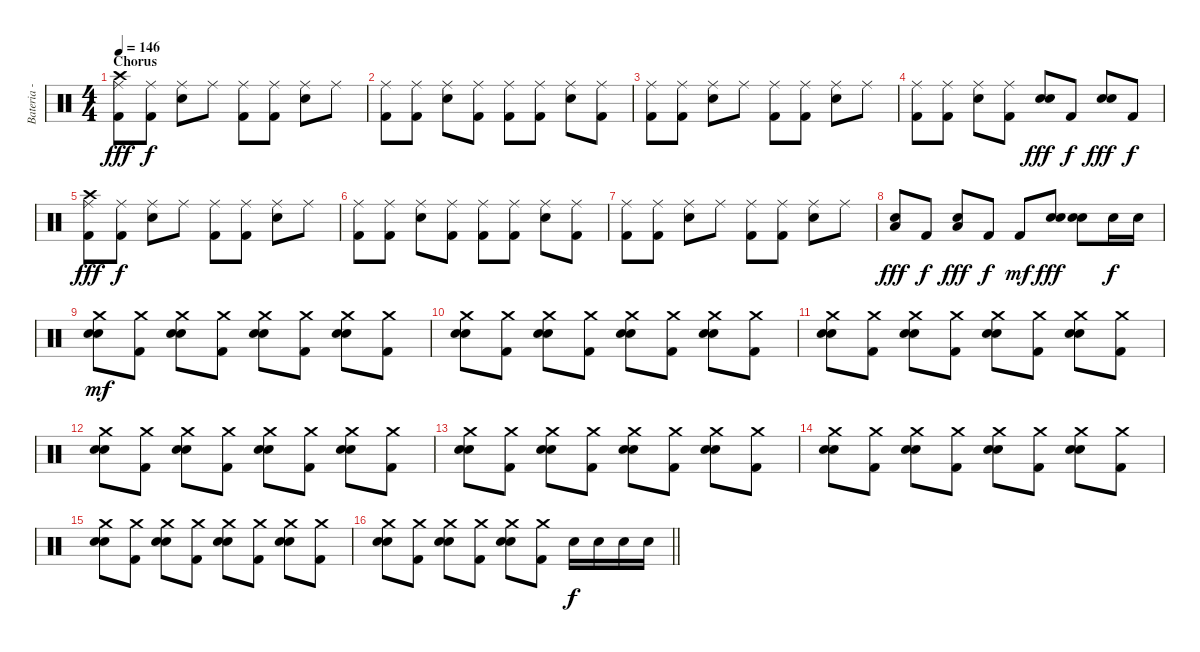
\track ("Bateria - Larzon" "Bateria - ") {instrument percussion}
\staff {score}
\articulation defaults
\ts (4 4)
\section ("" "Chorus")
\tempo 146
\clef neutral
\ks c
("Kick (hit) 2" "Ride (middle)" "Crash high (hit)").8{dy fff} ("Kick (hit) 2" "Ride (middle)").8{dy f} ("Electric Snare (hit)" "Ride (middle)").8 "Ride (middle)".8 ("Kick (hit) 2" "Ride (middle)").8 ("Kick (hit) 2" "Ride (middle)").8 ("Electric Snare (hit)" "Ride (middle)").8 "Ride (middle)".8 |
("Kick (hit) 2" "Ride (middle)").8 ("Kick (hit) 2" "Ride (middle)").8 ("Electric Snare (hit)" "Ride (middle)").8 ("Kick (hit) 2" "Ride (middle)").8 ("Kick (hit) 2" "Ride (middle)").8 ("Kick (hit) 2" "Ride (middle)").8 ("Electric Snare (hit)" "Ride (middle)").8 ("Kick (hit) 2" "Ride (middle)").8 |
("Kick (hit) 2" "Ride (middle)").8 ("Kick (hit) 2" "Ride (middle)").8 ("Electric Snare (hit)" "Ride (middle)").8 "Ride (middle)".8 ("Kick (hit) 2" "Ride (middle)").8 ("Kick (hit) 2" "Ride (middle)").8 ("Electric Snare (hit)" "Ride (middle)").8 "Ride (middle)".8 |
("Kick (hit) 2" "Ride (middle)").8 ("Kick (hit) 2" "Ride (middle)").8 ("Electric Snare (hit)" "Ride (middle)").8 ("Kick (hit) 2" "Ride (middle)").8 ("Electric Snare (hit)" "Electric Snare (hit)").8{dy fff} "Kick (hit) 2".8{dy f} ("Electric Snare (hit)" "Electric Snare (hit)").8{dy fff} "Kick (hit) 2".8{dy f} |
("Kick (hit) 2" "Ride (middle)" "Crash high (hit)").8{dy fff} ("Kick (hit) 2" "Ride (middle)").8{dy f} ("Electric Snare (hit)" "Ride (middle)").8 "Ride (middle)".8 ("Kick (hit) 2" "Ride (middle)").8 ("Kick (hit) 2" "Ride (middle)").8 ("Electric Snare (hit)" "Ride (middle)").8 "Ride (middle)".8 |
("Kick (hit) 2" "Ride (middle)").8 ("Kick (hit) 2" "Ride (middle)").8 ("Electric Snare (hit)" "Ride (middle)").8 ("Kick (hit) 2" "Ride (middle)").8 ("Kick (hit) 2" "Ride (middle)").8 ("Kick (hit) 2" "Ride (middle)").8 ("Electric Snare (hit)" "Ride (middle)").8 ("Kick (hit) 2" "Ride (middle)").8 |
("Kick (hit) 2" "Ride (middle)").8 ("Kick (hit) 2" "Ride (middle)").8 ("Electric Snare (hit)" "Ride (middle)").8 "Ride (middle)".8 ("Kick (hit) 2" "Ride (middle)").8 ("Kick (hit) 2" "Ride (middle)").8 ("Electric Snare (hit)" "Ride (middle)").8 "Ride (middle)".8 |
("Low Floor Tom (hit)" "Electric Snare (hit)").8{dy fff} "Kick (hit) 2".8{dy f} ("Low Floor Tom (hit)" "Electric Snare (hit)").8{dy fff} "Kick (hit) 2".8{dy f} "Kick (hit) 2".8{dy mf} ("Electric Snare (hit)" "Electric Snare (hit)").8{dy fff} ("Electric Snare (hit)" "Electric Snare (hit)").8 "Electric Snare (hit)".16{dy f} "Electric Snare (hit)".16 |
("Electric Snare (hit)" "Crash medium (hit)" "Electric Snare (hit)").8{dy mf} ("Kick (hit) 2" "Crash medium (hit)").8 ("Electric Snare (hit)" "Crash medium (hit)" "Electric Snare (hit)").8 ("Kick (hit) 2" "Crash medium (hit)").8 ("Electric Snare (hit)" "Crash medium (hit)" "Electric Snare (hit)").8 ("Kick (hit) 2" "Crash medium (hit)").8 ("Electric Snare (hit)" "Crash medium (hit)" "Electric Snare (hit)").8 ("Kick (hit) 2" "Crash medium (hit)").8 |
("Electric Snare (hit)" "Crash medium (hit)" "Electric Snare (hit)").8 ("Kick (hit) 2" "Crash medium (hit)").8 ("Electric Snare (hit)" "Crash medium (hit)" "Electric Snare (hit)").8 ("Kick (hit) 2" "Crash medium (hit)").8 ("Electric Snare (hit)" "Crash medium (hit)" "Electric Snare (hit)").8 ("Kick (hit) 2" "Crash medium (hit)").8 ("Electric Snare (hit)" "Crash medium (hit)" "Electric Snare (hit)").8 ("Kick (hit) 2" "Crash medium (hit)").8 |
("Electric Snare (hit)" "Crash medium (hit)" "Electric Snare (hit)").8 ("Kick (hit) 2" "Crash medium (hit)").8 ("Electric Snare (hit)" "Crash medium (hit)" "Electric Snare (hit)").8 ("Kick (hit) 2" "Crash medium (hit)").8 ("Electric Snare (hit)" "Crash medium (hit)" "Electric Snare (hit)").8 ("Kick (hit) 2" "Crash medium (hit)").8 ("Electric Snare (hit)" "Crash medium (hit)" "Electric Snare (hit)").8 ("Kick (hit) 2" "Crash medium (hit)").8 |
("Electric Snare (hit)" "Crash medium (hit)" "Electric Snare (hit)").8 ("Kick (hit) 2" "Crash medium (hit)").8 ("Electric Snare (hit)" "Crash medium (hit)" "Electric Snare (hit)").8 ("Kick (hit) 2" "Crash medium (hit)").8 ("Electric Snare (hit)" "Crash medium (hit)" "Electric Snare (hit)").8 ("Kick (hit) 2" "Crash medium (hit)").8 ("Electric Snare (hit)" "Crash medium (hit)" "Electric Snare (hit)").8 ("Kick (hit) 2" "Crash medium (hit)").8 |
("Electric Snare (hit)" "Crash medium (hit)" "Electric Snare (hit)").8 ("Kick (hit) 2" "Crash medium (hit)").8 ("Electric Snare (hit)" "Crash medium (hit)" "Electric Snare (hit)").8 ("Kick (hit) 2" "Crash medium (hit)").8 ("Electric Snare (hit)" "Crash medium (hit)" "Electric Snare (hit)").8 ("Kick (hit) 2" "Crash medium (hit)").8 ("Electric Snare (hit)" "Crash medium (hit)" "Electric Snare (hit)").8 ("Kick (hit) 2" "Crash medium (hit)").8 |
("Electric Snare (hit)" "Crash medium (hit)" "Electric Snare (hit)").8 ("Kick (hit) 2" "Crash medium (hit)").8 ("Electric Snare (hit)" "Crash medium (hit)" "Electric Snare (hit)").8 ("Kick (hit) 2" "Crash medium (hit)").8 ("Electric Snare (hit)" "Crash medium (hit)" "Electric Snare (hit)").8 ("Kick (hit) 2" "Crash medium (hit)").8 ("Electric Snare (hit)" "Crash medium (hit)" "Electric Snare (hit)").8 ("Kick (hit) 2" "Crash medium (hit)").8 |
("Electric Snare (hit)" "Crash medium (hit)" "Electric Snare (hit)").8 ("Kick (hit) 2" "Crash medium (hit)").8 ("Electric Snare (hit)" "Crash medium (hit)" "Electric Snare (hit)").8 ("Kick (hit) 2" "Crash medium (hit)").8 ("Electric Snare (hit)" "Crash medium (hit)" "Electric Snare (hit)").8 ("Kick (hit) 2" "Crash medium (hit)").8 ("Electric Snare (hit)" "Crash medium (hit)" "Electric Snare (hit)").8 ("Kick (hit) 2" "Crash medium (hit)").8 |
\barLineRight lightlight
("Electric Snare (hit)" "Crash medium (hit)" "Electric Snare (hit)").8 ("Kick (hit) 2" "Crash medium (hit)").8 ("Electric Snare (hit)" "Crash medium (hit)" "Electric Snare (hit)").8 ("Kick (hit) 2" "Crash medium (hit)").8 ("Electric Snare (hit)" "Crash medium (hit)" "Electric Snare (hit)").8 ("Kick (hit) 2" "Crash medium (hit)").8 "Electric Snare (hit)".16{dy f} "Electric Snare (hit)".16 "Electric Snare (hit)".16 "Electric Snare (hit)".16
